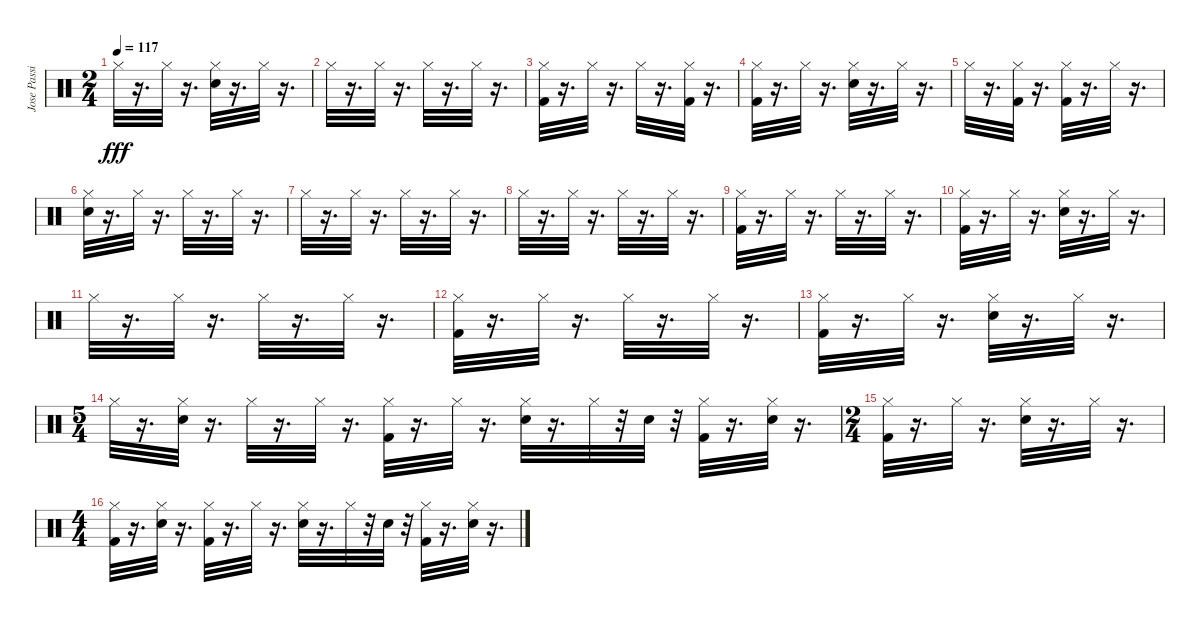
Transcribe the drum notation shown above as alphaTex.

\track ("Jose Passilas-drums" "Jose Passi") {instrument percussion}
\staff {score}
\articulation defaults
\ts (2 4)
\tempo 117
\clef neutral
\ks c "Hi-Hat (closed)".32{dy fff}
r.16{d} "Hi-Hat (closed)".32 r.16{d} ("Electric Snare (hit)" "Hi-Hat (closed)").32 r.16{d} "Hi-Hat (closed)".32 r.16{d} |
"Hi-Hat (closed)".32 r.16{d} "Hi-Hat (closed)".32 r.16{d} "Hi-Hat (closed)".32 r.16{d} "Hi-Hat (closed)".32 r.16{d} |
("Kick (hit) 2" "Hi-Hat (closed)").32 r.16{d} "Hi-Hat (closed)".32 r.16{d} "Hi-Hat (closed)".32 r.16{d} ("Kick (hit) 2" "Hi-Hat (closed)").32 r.16{d} |
("Kick (hit) 2" "Hi-Hat (closed)").32 r.16{d} "Hi-Hat (closed)".32 r.16{d} ("Electric Snare (hit)" "Hi-Hat (closed)").32 r.16{d} "Hi-Hat (closed)".32 r.16{d} |
"Hi-Hat (closed)".32 r.16{d} ("Kick (hit) 2" "Hi-Hat (closed)").32 r.16{d} ("Kick (hit) 2" "Hi-Hat (closed)").32 r.16{d} "Hi-Hat (closed)".32 r.16{d} |
("Electric Snare (hit)" "Hi-Hat (closed)").32 r.16{d} "Hi-Hat (closed)".32 r.16{d} "Hi-Hat (closed)".32 r.16{d} "Hi-Hat (closed)".32 r.16{d} |
"Hi-Hat (closed)".32 r.16{d} "Hi-Hat (closed)".32 r.16{d} "Hi-Hat (closed)".32 r.16{d} "Hi-Hat (closed)".32 r.16{d} |
"Hi-Hat (closed)".32 r.16{d} "Hi-Hat (closed)".32 r.16{d} "Hi-Hat (closed)".32 r.16{d} "Hi-Hat (closed)".32 r.16{d} |
("Kick (hit) 2" "Hi-Hat (closed)").32 r.16{d} "Hi-Hat (closed)".32 r.16{d} "Hi-Hat (closed)".32 r.16{d} "Hi-Hat (closed)".32 r.16{d} |
("Kick (hit) 2" "Hi-Hat (closed)").32 r.16{d} "Hi-Hat (closed)".32 r.16{d} ("Electric Snare (hit)" "Hi-Hat (closed)").32 r.16{d} "Hi-Hat (closed)".32 r.16{d} |
"Hi-Hat (closed)".32 r.16{d} "Hi-Hat (closed)".32 r.16{d} "Hi-Hat (closed)".32 r.16{d} "Hi-Hat (closed)".32 r.16{d} |
("Kick (hit) 2" "Hi-Hat (closed)").32 r.16{d} "Hi-Hat (closed)".32 r.16{d} "Hi-Hat (closed)".32 r.16{d} "Hi-Hat (closed)".32 r.16{d} |
("Hi-Hat (closed)" "Kick (hit) 2").32 r.16{d} "Hi-Hat (closed)".32 r.16{d} ("Electric Snare (hit)" "Hi-Hat (closed)").32 r.16{d} "Hi-Hat (closed)".32 r.16{d} |
\ts (5 4)
"Hi-Hat (closed)".32 r.16{d} ("Electric Snare (hit)" "Hi-Hat (closed)").32 r.16{d} "Hi-Hat (closed)".32 r.16{d} "Hi-Hat (closed)".32 r.16{d} ("Hi-Hat (closed)" "Kick (hit) 2").32 r.16{d} "Hi-Hat (closed)".32 r.16{d} ("Electric Snare (hit)" "Hi-Hat (closed)").32 r.16{d} "Hi-Hat (closed)".32 r.32 "Electric Snare (hit)".32 r.32 ("Hi-Hat (closed)" "Kick (hit) 2").32 r.16{d} ("Electric Snare (hit)" "Hi-Hat (closed)").32 r.16{d} |
\ts (2 4)
("Hi-Hat (closed)" "Kick (hit) 2").32 r.16{d} "Hi-Hat (closed)".32 r.16{d} ("Electric Snare (hit)" "Hi-Hat (closed)").32 r.16{d} "Hi-Hat (closed)".32 r.16{d} |
\ts (4 4)
("Hi-Hat (closed)" "Kick (hit) 2").32 r.16{d} ("Electric Snare (hit)" "Hi-Hat (closed)").32 r.16{d} ("Kick (hit) 2" "Hi-Hat (closed)").32 r.16{d} "Hi-Hat (closed)".32 r.16{d} ("Electric Snare (hit)" "Hi-Hat (closed)").32 r.16{d} "Hi-Hat (closed)".32 r.32 "Electric Snare (hit)".32 r.32 ("Kick (hit) 2" "Hi-Hat (closed)").32 r.16{d} ("Electric Snare (hit)" "Hi-Hat (closed)").32 r.16{d}
